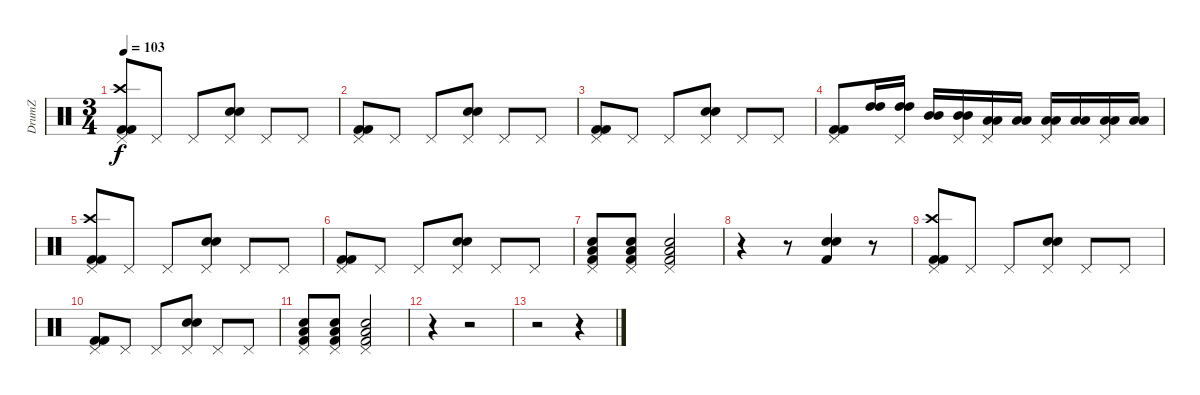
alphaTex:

\track ("DrumZ" "DrumZ") {instrument percussion}
\staff {score}
\articulation defaults
\ts (3 4)
\tempo 103
\clef neutral
\ks c
("Pedal Hi-Hat (hit)" "Crash high (hit)" "Kick (hit) 2" "Kick (hit) 2").8{dy f} "Pedal Hi-Hat (hit)".8 "Pedal Hi-Hat (hit)".8 ("Pedal Hi-Hat (hit)" "Electric Snare (hit)" "Electric Snare (hit)").8 "Pedal Hi-Hat (hit)".8 "Pedal Hi-Hat (hit)".8 |
("Pedal Hi-Hat (hit)" "Kick (hit) 2" "Kick (hit) 2").8 "Pedal Hi-Hat (hit)".8 "Pedal Hi-Hat (hit)".8 ("Pedal Hi-Hat (hit)" "Electric Snare (hit)" "Electric Snare (hit)").8 "Pedal Hi-Hat (hit)".8 "Pedal Hi-Hat (hit)".8 |
("Pedal Hi-Hat (hit)" "Kick (hit) 2" "Kick (hit) 2").8 "Pedal Hi-Hat (hit)".8 "Pedal Hi-Hat (hit)".8 ("Pedal Hi-Hat (hit)" "Electric Snare (hit)" "Electric Snare (hit)").8 "Pedal Hi-Hat (hit)".8 "Pedal Hi-Hat (hit)".8 |
("Pedal Hi-Hat (hit)" "Kick (hit) 2" "Kick (hit) 2").8 ("High Tom (hit)" "High Tom (hit)").16 ("Pedal Hi-Hat (hit)" "High Tom (hit)" "High Tom (hit)").16 ("Mid Tom (hit)" "Mid Tom (hit)").16 ("Pedal Hi-Hat (hit)" "Mid Tom (hit)" "Mid Tom (hit)").16 ("Pedal Hi-Hat (hit)" "Low Tom (hit)" "Low Tom (hit)").16 ("Low Tom (hit)" "Low Tom (hit)").16 ("Pedal Hi-Hat (hit)" "Low Floor Tom (hit)" "Low Floor Tom (hit)").16 ("Low Floor Tom (hit)" "Low Floor Tom (hit)").16 ("Pedal Hi-Hat (hit)" "Low Floor Tom (hit)" "Low Floor Tom (hit)").16 ("Low Floor Tom (hit)" "Low Floor Tom (hit)").16 |
("Pedal Hi-Hat (hit)" "Crash high (hit)" "Kick (hit) 2" "Kick (hit) 2").8 "Pedal Hi-Hat (hit)".8 "Pedal Hi-Hat (hit)".8 ("Pedal Hi-Hat (hit)" "Electric Snare (hit)" "Electric Snare (hit)").8 "Pedal Hi-Hat (hit)".8 "Pedal Hi-Hat (hit)".8 |
("Pedal Hi-Hat (hit)" "Kick (hit) 2" "Kick (hit) 2").8 "Pedal Hi-Hat (hit)".8 "Pedal Hi-Hat (hit)".8 ("Pedal Hi-Hat (hit)" "Electric Snare (hit)" "Electric Snare (hit)").8 "Pedal Hi-Hat (hit)".8 "Pedal Hi-Hat (hit)".8 |
("Low Tom (hit)" "Pedal Hi-Hat (hit)" "Snare (hit) 2" "Kick (hit) 2").8 ("Low Tom (hit)" "Pedal Hi-Hat (hit)" "Snare (hit) 2" "Kick (hit) 2").8 ("Low Tom (hit)" "Pedal Hi-Hat (hit)" "Snare (hit) 2" "Kick (hit) 2").2 |
r.4 r.8 ("Electric Snare (hit)" "Snare (hit) 2" "Kick (hit) 2").4 r.8 |
("Pedal Hi-Hat (hit)" "Crash high (hit)" "Kick (hit) 2" "Kick (hit) 2").8 "Pedal Hi-Hat (hit)".8 "Pedal Hi-Hat (hit)".8 ("Pedal Hi-Hat (hit)" "Electric Snare (hit)" "Electric Snare (hit)").8 "Pedal Hi-Hat (hit)".8 "Pedal Hi-Hat (hit)".8 |
("Pedal Hi-Hat (hit)" "Kick (hit) 2" "Kick (hit) 2").8 "Pedal Hi-Hat (hit)".8 "Pedal Hi-Hat (hit)".8 ("Pedal Hi-Hat (hit)" "Electric Snare (hit)" "Electric Snare (hit)").8 "Pedal Hi-Hat (hit)".8 "Pedal Hi-Hat (hit)".8 |
("Low Tom (hit)" "Pedal Hi-Hat (hit)" "Snare (hit) 2" "Kick (hit) 2").8 ("Low Tom (hit)" "Pedal Hi-Hat (hit)" "Snare (hit) 2" "Kick (hit) 2").8 ("Low Tom (hit)" "Pedal Hi-Hat (hit)" "Snare (hit) 2" "Kick (hit) 2").2 |
r.4 r.2 |
r.2 r.4
